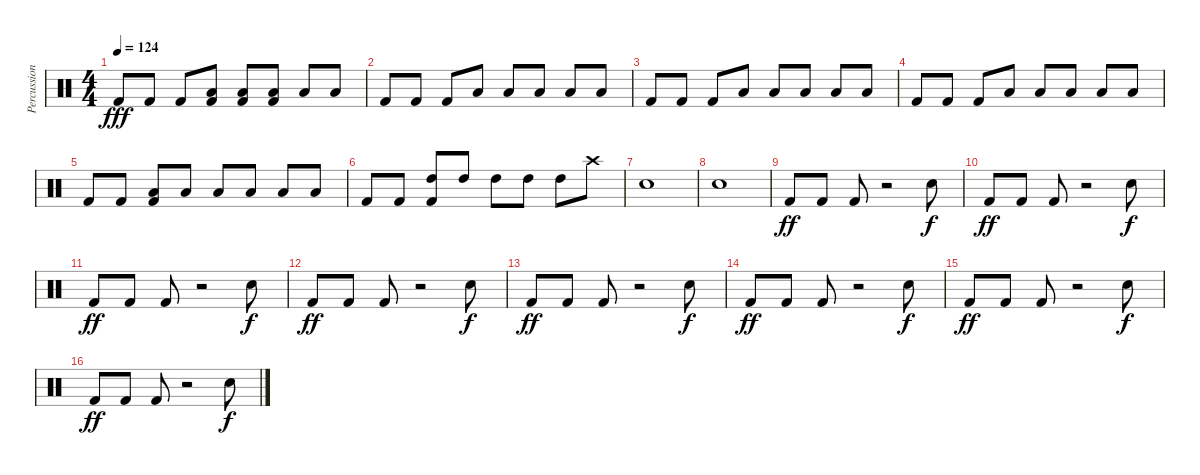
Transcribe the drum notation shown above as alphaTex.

\track ("Percussion" "Percussion") {instrument percussion}
\staff {score}
\articulation defaults
\ts (4 4)
\tempo 124
\clef neutral
\ks c "Kick (hit) 2".8{dy fff} "Kick (hit) 2".8 "Kick (hit) 2".8
("Kick (hit) 2" "Low Floor Tom (hit)").8 ("Kick (hit) 2" "Low Floor Tom (hit)").8 ("Kick (hit) 2" "Low Floor Tom (hit)").8 "Low Floor Tom (hit)".8 "Low Floor Tom (hit)".8 |
"Kick (hit) 2".8 "Kick (hit) 2".8 "Kick (hit) 2".8 "Low Floor Tom (hit)".8 "Low Floor Tom (hit)".8 "Low Floor Tom (hit)".8 "Low Floor Tom (hit)".8 "Low Floor Tom (hit)".8 |
"Kick (hit) 2".8 "Kick (hit) 2".8 "Kick (hit) 2".8 "Low Floor Tom (hit)".8 "Low Floor Tom (hit)".8 "Low Floor Tom (hit)".8 "Low Floor Tom (hit)".8 "Low Floor Tom (hit)".8 |
"Kick (hit) 2".8 "Kick (hit) 2".8 "Kick (hit) 2".8 "Low Floor Tom (hit)".8 "Low Floor Tom (hit)".8 "Low Floor Tom (hit)".8 "Low Floor Tom (hit)".8 "Low Floor Tom (hit)".8 |
"Kick (hit) 2".8 "Kick (hit) 2".8 ("Kick (hit) 2" "Low Tom (hit)").8 "Low Tom (hit)".8 "Low Tom (hit)".8 "Low Tom (hit)".8 "Low Tom (hit)".8 "Low Tom (hit)".8 |
"Kick (hit) 2".8 "Kick (hit) 2".8 ("Kick (hit) 2" "High Tom (hit)").8 "High Tom (hit)".8 "High Tom (hit)".8 "High Tom (hit)".8 "High Tom (hit)".8 "Crash high (hit)".8 |
"Electric Snare (hit)".1 |
"Electric Snare (hit)".1 |
"Kick (hit) 2".8{dy ff} "Kick (hit) 2".8 "Kick (hit) 2".8 r.2 "Electric Snare (hit)".8{dy f} |
"Kick (hit) 2".8{dy ff} "Kick (hit) 2".8 "Kick (hit) 2".8 r.2 "Electric Snare (hit)".8{dy f} |
"Kick (hit) 2".8{dy ff} "Kick (hit) 2".8 "Kick (hit) 2".8 r.2 "Electric Snare (hit)".8{dy f} |
"Kick (hit) 2".8{dy ff} "Kick (hit) 2".8 "Kick (hit) 2".8 r.2 "Electric Snare (hit)".8{dy f} |
"Kick (hit) 2".8{dy ff} "Kick (hit) 2".8 "Kick (hit) 2".8 r.2 "Electric Snare (hit)".8{dy f} |
"Kick (hit) 2".8{dy ff} "Kick (hit) 2".8 "Kick (hit) 2".8 r.2 "Electric Snare (hit)".8{dy f} |
"Kick (hit) 2".8{dy ff} "Kick (hit) 2".8 "Kick (hit) 2".8 r.2 "Electric Snare (hit)".8{dy f} |
"Kick (hit) 2".8{dy ff} "Kick (hit) 2".8 "Kick (hit) 2".8 r.2 "Electric Snare (hit)".8{dy f}
